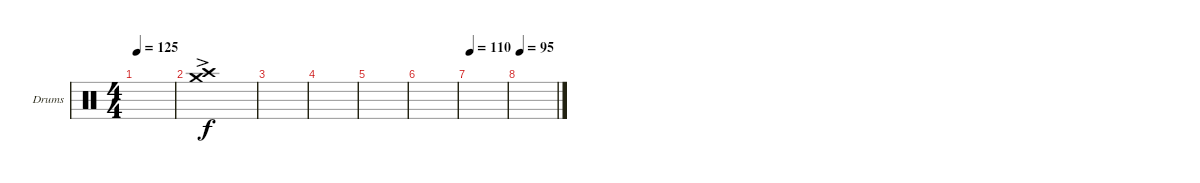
\defaultSystemsLayout 4
\bracketExtendMode groupsimilarinstruments
\firstSystemTrackNameOrientation horizontal
\otherSystemsTrackNameOrientation horizontal
\track ("Drumkit" "Drums") {instrument percussion}
\staff {score}
\articulation defaults
\ts (4 4)
\tempo 125
\clef neutral
\scale
0.333333
\ks c
|
("Crash medium (hit)"{ac} "Crash high (hit)"{ac}).1{dy f} |
|
|
|
|
\tempo 110
|
\tempo 95
